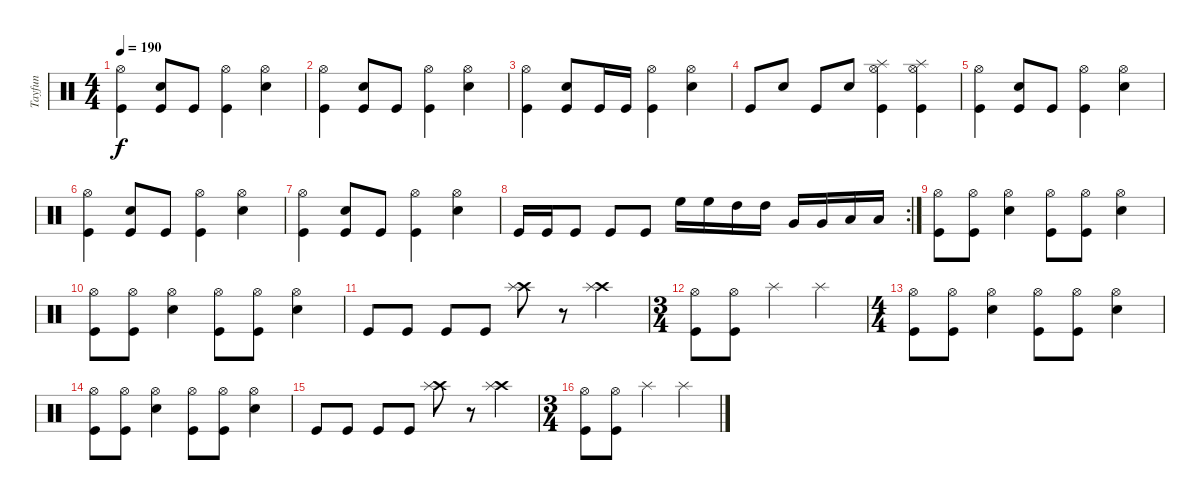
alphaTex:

\track ("Tayfun" "Tayfun") {instrument percussion}
\staff {score}
\articulation defaults
\ts (4 4)
\tempo 190
\clef neutral
\ks c
("Hi-Hat (open)" "Kick (hit)").4{dy f} ("Snare (hit) 2" "Kick (hit)").8 "Kick (hit)".8 ("Hi-Hat (open)" "Kick (hit)").4 ("Hi-Hat (open)" "Snare (hit) 2").4 |
("Hi-Hat (open)" "Kick (hit)").4 ("Snare (hit) 2" "Kick (hit)").8 "Kick (hit)".8 ("Hi-Hat (open)" "Kick (hit)").4 ("Hi-Hat (open)" "Snare (hit) 2").4 |
("Hi-Hat (open)" "Kick (hit)").4 ("Snare (hit) 2" "Kick (hit)").8 "Kick (hit)".16 "Kick (hit)".16 ("Hi-Hat (open)" "Kick (hit)").4 ("Hi-Hat (open)" "Snare (hit) 2").4 |
"Kick (hit)".8 "Snare (hit) 2".8 "Kick (hit)".8 "Snare (hit) 2".8 ("Hi-Hat (open)" "Splash (hit)" "Kick (hit)").4 ("Hi-Hat (open)" "Splash (hit)" "Kick (hit)").4 |
("Hi-Hat (open)" "Kick (hit)").4 ("Snare (hit) 2" "Kick (hit)").8 "Kick (hit)".8 ("Hi-Hat (open)" "Kick (hit)").4 ("Hi-Hat (open)" "Snare (hit) 2").4 |
("Hi-Hat (open)" "Kick (hit)").4 ("Snare (hit) 2" "Kick (hit)").8 "Kick (hit)".8 ("Hi-Hat (open)" "Kick (hit)").4 ("Hi-Hat (open)" "Snare (hit) 2").4 |
("Hi-Hat (open)" "Kick (hit)").4 ("Snare (hit) 2" "Kick (hit)").8 "Kick (hit)".8 ("Hi-Hat (open)" "Kick (hit)").4 ("Hi-Hat (open)" "Snare (hit) 2").4 |
\rc 2 "Kick (hit)".16 "Kick (hit)".16 "Kick (hit)".8 "Kick (hit)".8 "Kick (hit)".8 "High Floor Tom (hit)".16 "High Floor Tom (hit)".16 "High Tom (hit)".16 "High Tom (hit)".16 "Very Low Tom (hit)".16 "Very Low Tom (hit)".16 "Low Tom (hit)".16 "Low Tom (hit)".16
|
("Hi-Hat (open)" "Kick (hit)").8 ("Hi-Hat (open)" "Kick (hit)").8 ("Hi-Hat (open)" "Snare (hit) 2").4 ("Hi-Hat (open)" "Kick (hit)").8 ("Hi-Hat (open)" "Kick (hit)").8 ("Hi-Hat (open)" "Snare (hit) 2").4 |
("Hi-Hat (open)" "Kick (hit)").8 ("Hi-Hat (open)" "Kick (hit)").8 ("Hi-Hat (open)" "Snare (hit) 2").4 ("Hi-Hat (open)" "Kick (hit)").8 ("Hi-Hat (open)" "Kick (hit)").8 ("Hi-Hat (open)" "Snare (hit) 2").4 |
"Kick (hit)".8 "Kick (hit)".8 "Kick (hit)".8 "Kick (hit)".8 ("Crash high (hit)" "Splash (hit)").8 r.8 ("Crash high (hit)" "Splash (hit)").4 |
\ts (3 4)
("Hi-Hat (open)" "Kick (hit)").8 ("Hi-Hat (open)" "Kick (hit)").8 "Splash (hit)".4 "Splash (hit)".4 |
\ts (4 4)
("Hi-Hat (open)" "Kick (hit)").8 ("Hi-Hat (open)" "Kick (hit)").8 ("Hi-Hat (open)" "Snare (hit) 2").4 ("Hi-Hat (open)" "Kick (hit)").8 ("Hi-Hat (open)" "Kick (hit)").8 ("Hi-Hat (open)" "Snare (hit) 2").4 |
("Hi-Hat (open)" "Kick (hit)").8 ("Hi-Hat (open)" "Kick (hit)").8 ("Hi-Hat (open)" "Snare (hit) 2").4 ("Hi-Hat (open)" "Kick (hit)").8 ("Hi-Hat (open)" "Kick (hit)").8 ("Hi-Hat (open)" "Snare (hit) 2").4 |
"Kick (hit)".8 "Kick (hit)".8 "Kick (hit)".8 "Kick (hit)".8 ("Crash high (hit)" "Splash (hit)").8 r.8 ("Crash high (hit)" "Splash (hit)").4 |
\ts (3 4)
("Hi-Hat (open)" "Kick (hit)").8 ("Hi-Hat (open)" "Kick (hit)").8 "Splash (hit)".4 "Splash (hit)".4
